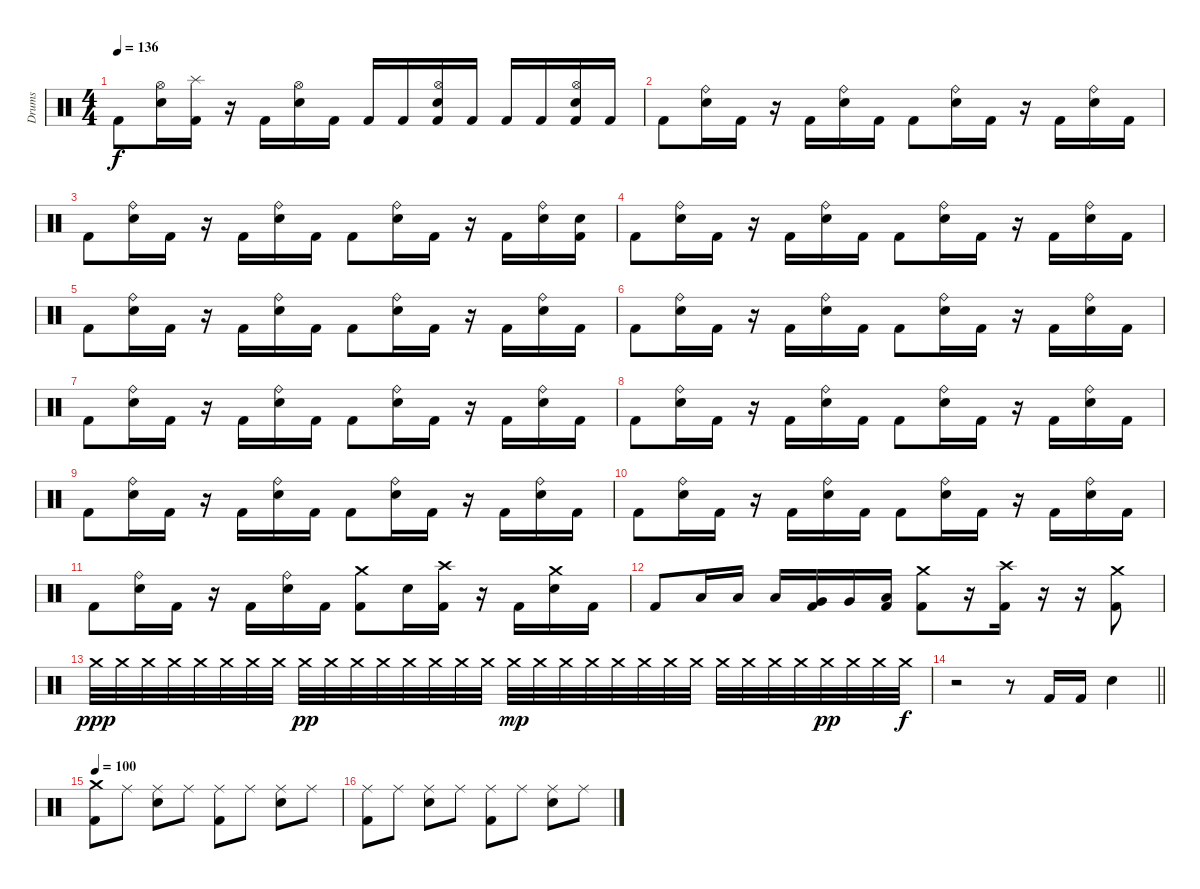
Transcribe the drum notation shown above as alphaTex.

\track ("Drums" "Drums") {instrument percussion}
\staff {score}
\articulation defaults
\ts (4 4)
\tempo 136
\clef neutral
\ks c "Kick (hit) 2".8{dy f}
("Hi-Hat (open)" "Electric Snare (hit)").16 ("Splash (hit)" "Kick (hit) 2").16 r.16 "Kick (hit) 2".16 ("Hi-Hat (open)" "Electric Snare (hit)").16 "Kick (hit) 2".16 "Kick (hit) 2".16 "Kick (hit) 2".16 ("Hi-Hat (open)" "Electric Snare (hit)" "Kick (hit) 2").16 "Kick (hit) 2".16 "Kick (hit) 2".16 "Kick (hit) 2".16 ("Hi-Hat (open)" "Electric Snare (hit)" "Kick (hit) 2").16 "Kick (hit) 2".16 |
"Kick (hit) 2".8 ("Ride (bell)" "Electric Snare (hit)").16 "Kick (hit) 2".16 r.16 "Kick (hit) 2".16 ("Ride (bell)" "Electric Snare (hit)").16 "Kick (hit) 2".16 "Kick (hit) 2".8 ("Ride (bell)" "Electric Snare (hit)").16 "Kick (hit) 2".16 r.16 "Kick (hit) 2".16 ("Ride (bell)" "Electric Snare (hit)").16 "Kick (hit) 2".16 |
"Kick (hit) 2".8 ("Ride (bell)" "Electric Snare (hit)").16 "Kick (hit) 2".16 r.16 "Kick (hit) 2".16 ("Ride (bell)" "Electric Snare (hit)").16 "Kick (hit) 2".16 "Kick (hit) 2".8 ("Ride (bell)" "Electric Snare (hit)").16 "Kick (hit) 2".16 r.16 "Kick (hit) 2".16 ("Ride (bell)" "Electric Snare (hit)").16 ("Electric Snare (hit)" "Kick (hit) 2").16 |
"Kick (hit) 2".8 ("Ride (bell)" "Electric Snare (hit)").16 "Kick (hit) 2".16 r.16 "Kick (hit) 2".16 ("Ride (bell)" "Electric Snare (hit)").16 "Kick (hit) 2".16 "Kick (hit) 2".8 ("Ride (bell)" "Electric Snare (hit)").16 "Kick (hit) 2".16 r.16 "Kick (hit) 2".16 ("Ride (bell)" "Electric Snare (hit)").16 "Kick (hit) 2".16 |
"Kick (hit) 2".8 ("Ride (bell)" "Electric Snare (hit)").16 "Kick (hit) 2".16 r.16 "Kick (hit) 2".16 ("Ride (bell)" "Electric Snare (hit)").16 "Kick (hit) 2".16 "Kick (hit) 2".8 ("Ride (bell)" "Electric Snare (hit)").16 "Kick (hit) 2".16 r.16 "Kick (hit) 2".16 ("Ride (bell)" "Electric Snare (hit)").16 "Kick (hit) 2".16 |
"Kick (hit) 2".8 ("Ride (bell)" "Electric Snare (hit)").16 "Kick (hit) 2".16 r.16 "Kick (hit) 2".16 ("Ride (bell)" "Electric Snare (hit)").16 "Kick (hit) 2".16 "Kick (hit) 2".8 ("Ride (bell)" "Electric Snare (hit)").16 "Kick (hit) 2".16 r.16 "Kick (hit) 2".16 ("Ride (bell)" "Electric Snare (hit)").16 "Kick (hit) 2".16 |
"Kick (hit) 2".8 ("Ride (bell)" "Electric Snare (hit)").16 "Kick (hit) 2".16 r.16 "Kick (hit) 2".16 ("Ride (bell)" "Electric Snare (hit)").16 "Kick (hit) 2".16 "Kick (hit) 2".8 ("Ride (bell)" "Electric Snare (hit)").16 "Kick (hit) 2".16 r.16 "Kick (hit) 2".16 ("Ride (bell)" "Electric Snare (hit)").16 "Kick (hit) 2".16 |
"Kick (hit) 2".8 ("Ride (bell)" "Electric Snare (hit)").16 "Kick (hit) 2".16 r.16 "Kick (hit) 2".16 ("Ride (bell)" "Electric Snare (hit)").16 "Kick (hit) 2".16 "Kick (hit) 2".8 ("Ride (bell)" "Electric Snare (hit)").16 "Kick (hit) 2".16 r.16 "Kick (hit) 2".16 ("Ride (bell)" "Electric Snare (hit)").16 "Kick (hit) 2".16 |
"Kick (hit) 2".8 ("Ride (bell)" "Electric Snare (hit)").16 "Kick (hit) 2".16 r.16 "Kick (hit) 2".16 ("Ride (bell)" "Electric Snare (hit)").16 "Kick (hit) 2".16 "Kick (hit) 2".8 ("Ride (bell)" "Electric Snare (hit)").16 "Kick (hit) 2".16 r.16 "Kick (hit) 2".16 ("Ride (bell)" "Electric Snare (hit)").16 "Kick (hit) 2".16 |
"Kick (hit) 2".8 ("Ride (bell)" "Electric Snare (hit)").16 "Kick (hit) 2".16 r.16 "Kick (hit) 2".16 ("Ride (bell)" "Electric Snare (hit)").16 "Kick (hit) 2".16 "Kick (hit) 2".8 ("Ride (bell)" "Electric Snare (hit)").16 "Kick (hit) 2".16 r.16 "Kick (hit) 2".16 ("Ride (bell)" "Electric Snare (hit)").16 "Kick (hit) 2".16 |
"Kick (hit) 2".8 ("Ride (bell)" "Electric Snare (hit)").16 "Kick (hit) 2".16 r.16 "Kick (hit) 2".16 ("Ride (bell)" "Electric Snare (hit)").16 "Kick (hit) 2".16 ("Crash medium (hit)" "Kick (hit) 2").8 "Electric Snare (hit)".16 ("Crash high (hit)" "Kick (hit) 2").16 r.16 "Kick (hit) 2".16 ("Crash medium (hit)" "Electric Snare (hit)").16 "Kick (hit) 2".16 |
"Kick (hit) 2".8 "Low Tom (hit)".16 "Low Tom (hit)".16 "Low Tom (hit)".16 ("Very Low Tom (hit)" "Kick (hit) 2").16 "Very Low Tom (hit)".16 ("Low Floor Tom (hit)" "Kick (hit) 2").16 ("Crash medium (hit)" "Kick (hit) 2").8 r.16 ("Crash high (hit)" "Kick (hit) 2").16 r.16 r.16 ("Crash medium (hit)" "Kick (hit) 2").8 |
"Crash medium (hit)".32{dy ppp} "Crash medium (hit)".32 "Crash medium (hit)".32 "Crash medium (hit)".32 "Crash medium (hit)".32 "Crash medium (hit)".32 "Crash medium (hit)".32 "Crash medium (hit)".32 "Crash medium (hit)".32{dy pp} "Crash medium (hit)".32 "Crash medium (hit)".32 "Crash medium (hit)".32 "Crash medium (hit)".32 "Crash medium (hit)".32 "Crash medium (hit)".32 "Crash medium (hit)".32 "Crash medium (hit)".32{dy mp} "Crash medium (hit)".32 "Crash medium (hit)".32 "Crash medium (hit)".32 "Crash medium (hit)".32 "Crash medium (hit)".32 "Crash medium (hit)".32 "Crash medium (hit)".32 "Crash medium (hit)".32 "Crash medium (hit)".32 "Crash medium (hit)".32 "Crash medium (hit)".32 "Crash medium (hit)".32{dy pp} "Crash medium (hit)".32 "Crash medium (hit)".32 "Crash medium (hit)".32{dy f} |
\barLineRight lightlight
r.2 r.8 "Kick (hit) 2".16 "Kick (hit) 2".16 "Electric Snare (hit)".4 |
\tempo 100
("Crash medium (hit)" "Kick (hit) 2").8 "Ride (middle)".8 ("Ride (middle)" "Electric Snare (hit)").8 "Ride (middle)".8 ("Ride (middle)" "Kick (hit) 2").8 "Ride (middle)".8 ("Ride (middle)" "Electric Snare (hit)").8 "Ride (middle)".8 |
("Ride (middle)" "Kick (hit) 2").8 "Ride (middle)".8 ("Ride (middle)" "Electric Snare (hit)").8 "Ride (middle)".8 ("Ride (middle)" "Kick (hit) 2").8 "Ride (middle)".8 ("Ride (middle)" "Electric Snare (hit)").8 "Ride (middle)".8
